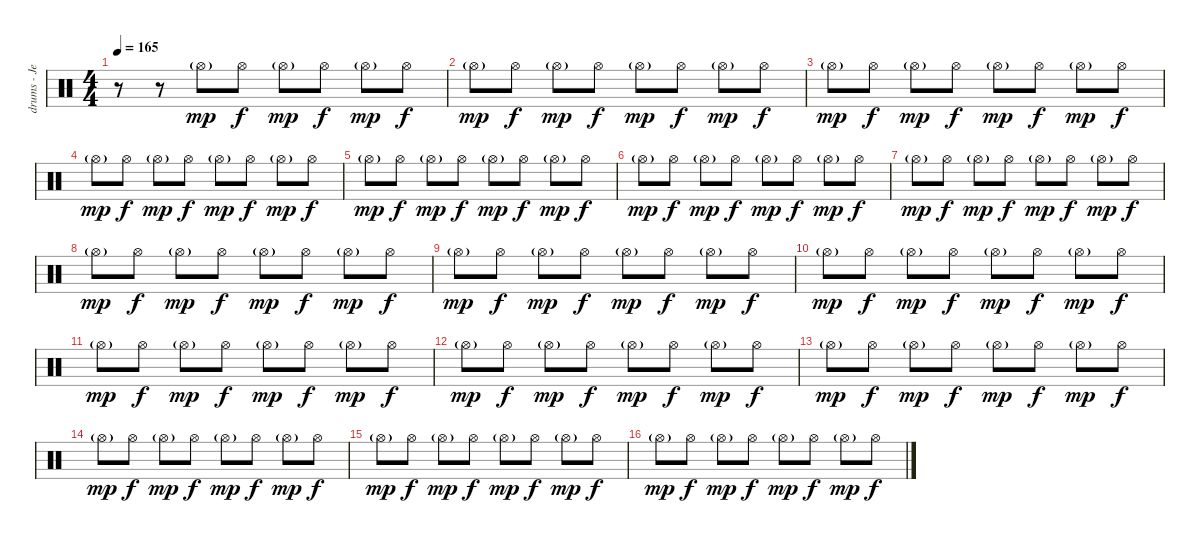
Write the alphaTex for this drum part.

\track ("drums - Jeff" "drums - Je") {instrument percussion}
\staff {score}
\articulation defaults
\ts (4 4)
\tempo 165
\clef neutral
\ks c
r.8{dy mp} r.8 "Hi-Hat (open)"{g}.8 "Hi-Hat (open)".8{dy f} "Hi-Hat (open)"{g}.8{dy mp} "Hi-Hat (open)".8{dy f} "Hi-Hat (open)"{g}.8{dy mp} "Hi-Hat (open)".8{dy f} |
"Hi-Hat (open)"{g}.8{dy mp} "Hi-Hat (open)".8{dy f} "Hi-Hat (open)"{g}.8{dy mp} "Hi-Hat (open)".8{dy f} "Hi-Hat (open)"{g}.8{dy mp} "Hi-Hat (open)".8{dy f} "Hi-Hat (open)"{g}.8{dy mp} "Hi-Hat (open)".8{dy f} |
"Hi-Hat (open)"{g}.8{dy mp} "Hi-Hat (open)".8{dy f} "Hi-Hat (open)"{g}.8{dy mp} "Hi-Hat (open)".8{dy f} "Hi-Hat (open)"{g}.8{dy mp} "Hi-Hat (open)".8{dy f} "Hi-Hat (open)"{g}.8{dy mp} "Hi-Hat (open)".8{dy f} |
"Hi-Hat (open)"{g}.8{dy mp} "Hi-Hat (open)".8{dy f} "Hi-Hat (open)"{g}.8{dy mp} "Hi-Hat (open)".8{dy f} "Hi-Hat (open)"{g}.8{dy mp} "Hi-Hat (open)".8{dy f} "Hi-Hat (open)"{g}.8{dy mp} "Hi-Hat (open)".8{dy f} |
"Hi-Hat (open)"{g}.8{dy mp} "Hi-Hat (open)".8{dy f} "Hi-Hat (open)"{g}.8{dy mp} "Hi-Hat (open)".8{dy f} "Hi-Hat (open)"{g}.8{dy mp} "Hi-Hat (open)".8{dy f} "Hi-Hat (open)"{g}.8{dy mp} "Hi-Hat (open)".8{dy f} |
"Hi-Hat (open)"{g}.8{dy mp} "Hi-Hat (open)".8{dy f} "Hi-Hat (open)"{g}.8{dy mp} "Hi-Hat (open)".8{dy f} "Hi-Hat (open)"{g}.8{dy mp} "Hi-Hat (open)".8{dy f} "Hi-Hat (open)"{g}.8{dy mp} "Hi-Hat (open)".8{dy f} |
"Hi-Hat (open)"{g}.8{dy mp} "Hi-Hat (open)".8{dy f} "Hi-Hat (open)"{g}.8{dy mp} "Hi-Hat (open)".8{dy f} "Hi-Hat (open)"{g}.8{dy mp} "Hi-Hat (open)".8{dy f} "Hi-Hat (open)"{g}.8{dy mp} "Hi-Hat (open)".8{dy f} |
"Hi-Hat (open)"{g}.8{dy mp} "Hi-Hat (open)".8{dy f} "Hi-Hat (open)"{g}.8{dy mp} "Hi-Hat (open)".8{dy f} "Hi-Hat (open)"{g}.8{dy mp} "Hi-Hat (open)".8{dy f} "Hi-Hat (open)"{g}.8{dy mp} "Hi-Hat (open)".8{dy f} |
"Hi-Hat (open)"{g}.8{dy mp} "Hi-Hat (open)".8{dy f} "Hi-Hat (open)"{g}.8{dy mp} "Hi-Hat (open)".8{dy f} "Hi-Hat (open)"{g}.8{dy mp} "Hi-Hat (open)".8{dy f} "Hi-Hat (open)"{g}.8{dy mp} "Hi-Hat (open)".8{dy f} |
"Hi-Hat (open)"{g}.8{dy mp} "Hi-Hat (open)".8{dy f} "Hi-Hat (open)"{g}.8{dy mp} "Hi-Hat (open)".8{dy f} "Hi-Hat (open)"{g}.8{dy mp} "Hi-Hat (open)".8{dy f} "Hi-Hat (open)"{g}.8{dy mp} "Hi-Hat (open)".8{dy f} |
"Hi-Hat (open)"{g}.8{dy mp} "Hi-Hat (open)".8{dy f} "Hi-Hat (open)"{g}.8{dy mp} "Hi-Hat (open)".8{dy f} "Hi-Hat (open)"{g}.8{dy mp} "Hi-Hat (open)".8{dy f} "Hi-Hat (open)"{g}.8{dy mp} "Hi-Hat (open)".8{dy f} |
"Hi-Hat (open)"{g}.8{dy mp} "Hi-Hat (open)".8{dy f} "Hi-Hat (open)"{g}.8{dy mp} "Hi-Hat (open)".8{dy f} "Hi-Hat (open)"{g}.8{dy mp} "Hi-Hat (open)".8{dy f} "Hi-Hat (open)"{g}.8{dy mp} "Hi-Hat (open)".8{dy f} |
"Hi-Hat (open)"{g}.8{dy mp} "Hi-Hat (open)".8{dy f} "Hi-Hat (open)"{g}.8{dy mp} "Hi-Hat (open)".8{dy f} "Hi-Hat (open)"{g}.8{dy mp} "Hi-Hat (open)".8{dy f} "Hi-Hat (open)"{g}.8{dy mp} "Hi-Hat (open)".8{dy f} |
"Hi-Hat (open)"{g}.8{dy mp} "Hi-Hat (open)".8{dy f} "Hi-Hat (open)"{g}.8{dy mp} "Hi-Hat (open)".8{dy f} "Hi-Hat (open)"{g}.8{dy mp} "Hi-Hat (open)".8{dy f} "Hi-Hat (open)"{g}.8{dy mp} "Hi-Hat (open)".8{dy f} |
"Hi-Hat (open)"{g}.8{dy mp} "Hi-Hat (open)".8{dy f} "Hi-Hat (open)"{g}.8{dy mp} "Hi-Hat (open)".8{dy f} "Hi-Hat (open)"{g}.8{dy mp} "Hi-Hat (open)".8{dy f} "Hi-Hat (open)"{g}.8{dy mp} "Hi-Hat (open)".8{dy f} |
"Hi-Hat (open)"{g}.8{dy mp} "Hi-Hat (open)".8{dy f} "Hi-Hat (open)"{g}.8{dy mp} "Hi-Hat (open)".8{dy f} "Hi-Hat (open)"{g}.8{dy mp} "Hi-Hat (open)".8{dy f} "Hi-Hat (open)"{g}.8{dy mp} "Hi-Hat (open)".8{dy f}
